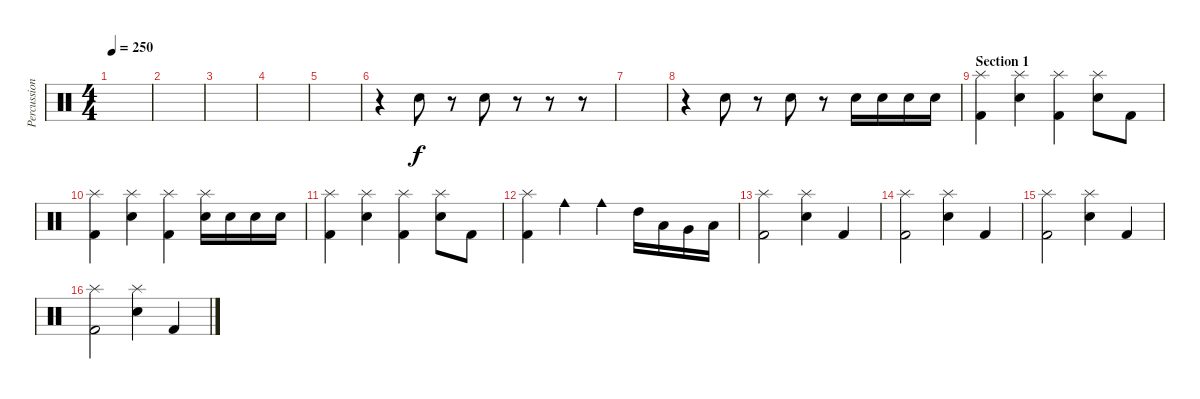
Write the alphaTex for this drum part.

\track ("Percussions" "Percussion") {instrument percussion}
\staff {score}
\articulation defaults
\ts (4 4)
\tempo 250
\clef neutral
\ks c
|
|
|
|
|
r.4 "Snare (hit) 2".8 r.8 "Snare (hit) 2".8 r.8 r.8 r.8 |
|
r.4 "Snare (hit) 2".8 r.8 "Snare (hit) 2".8 r.8 "Snare (hit) 2".16 "Snare (hit) 2".16 "Snare (hit) 2".16 "Snare (hit) 2".16 |
\section ("" "Section 1")
("Splash (hit)" "Kick (hit) 2").4 ("Splash (hit)" "Snare (hit) 2").4 ("Splash (hit)" "Kick (hit) 2").4 ("Splash (hit)" "Snare (hit) 2").8 "Kick (hit) 2".8 |
("Splash (hit)" "Kick (hit) 2").4 ("Splash (hit)" "Snare (hit) 2").4 ("Splash (hit)" "Kick (hit) 2").4 ("Splash (hit)" "Snare (hit) 2").16 "Snare (hit) 2".16 "Snare (hit) 2".16 "Snare (hit) 2".16 |
("Splash (hit)" "Kick (hit) 2").4 ("Splash (hit)" "Snare (hit) 2").4 ("Splash (hit)" "Kick (hit) 2").4 ("Splash (hit)" "Snare (hit) 2").8 "Kick (hit) 2".8 |
("Splash (hit)" "Kick (hit) 2").4 "Cowbell medium (hit)".4 "Cowbell medium (hit)".4 "High Tom (hit)".16 "Low Tom (hit)".16 "Very Low Tom (hit)".16 "Low Floor Tom (hit)".16 |
("Splash (hit)" "Kick (hit) 2").2 ("Splash (hit)" "Snare (hit) 2").4 "Kick (hit) 2".4 |
("Splash (hit)" "Kick (hit) 2").2 ("Splash (hit)" "Snare (hit) 2").4 "Kick (hit) 2".4 |
("Splash (hit)" "Kick (hit) 2").2 ("Splash (hit)" "Snare (hit) 2").4 "Kick (hit) 2".4 |
("Splash (hit)" "Kick (hit) 2").2 ("Splash (hit)" "Snare (hit) 2").4 "Kick (hit) 2".4
